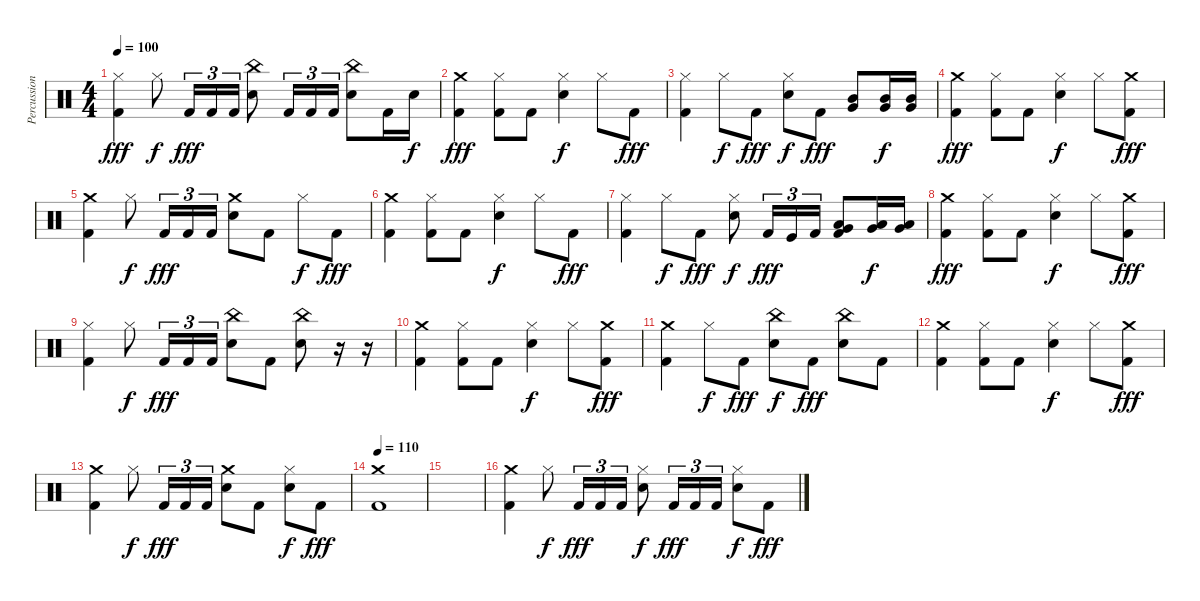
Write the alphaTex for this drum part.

\track ("Percussion" "Percussion") {instrument percussion}
\staff {score}
\articulation defaults
\ts (4 4)
\tempo 100
\clef neutral
\ks c
("Hi-Hat (closed)" "Kick (hit) 2").4{dy fff} "Hi-Hat (closed)".8{dy f} "Kick (hit) 2".16{tu (3 2) dy fff} "Kick (hit) 2".16{tu (3 2)} "Kick (hit) 2".16{tu (3 2)} ("China (hit)" "Snare (hit) 2").8 "Kick (hit) 2".16{tu (3 2)} "Kick (hit) 2".16{tu (3 2)} "Kick (hit) 2".16{tu (3 2)} ("China (hit)" "Snare (hit) 2").8 "Kick (hit) 2".16 "Snare (hit) 2".16{dy f} |
("Crash medium (hit)" "Kick (hit) 2").4{dy fff} ("Hi-Hat (closed)" "Kick (hit) 2").8 "Kick (hit) 2".8 ("Hi-Hat (closed)" "Snare (hit) 2").4{dy f} "Hi-Hat (closed)".8 "Kick (hit) 2".8{dy fff} |
("Hi-Hat (closed)" "Kick (hit) 2").4 "Hi-Hat (closed)".8{dy f} "Kick (hit) 2".8{dy fff} ("Hi-Hat (closed)" "Snare (hit) 2").8{dy f} "Kick (hit) 2".8{dy fff} ("Mid Tom (hit)" "Very Low Tom (hit)").8 ("Mid Tom (hit)" "Very Low Tom (hit)").16{dy f} ("Mid Tom (hit)" "Very Low Tom (hit)").16 |
("Crash medium (hit)" "Kick (hit) 2").4{dy fff} ("Hi-Hat (closed)" "Kick (hit) 2").8 "Kick (hit) 2".8 ("Hi-Hat (closed)" "Snare (hit) 2").4{dy f} "Hi-Hat (closed)".8 ("Crash medium (hit)" "Kick (hit) 2").8{dy fff} |
("Crash medium (hit)" "Kick (hit) 2").4 "Hi-Hat (closed)".8{dy f} "Kick (hit) 2".16{tu (3 2) dy fff} "Kick (hit) 2".16{tu (3 2)} "Kick (hit) 2".16{tu (3 2)} ("Crash medium (hit)" "Snare (hit) 2").8 "Kick (hit) 2".8 "Hi-Hat (closed)".8{dy f} "Kick (hit) 2".8{dy fff} |
("Crash medium (hit)" "Kick (hit) 2").4 ("Hi-Hat (closed)" "Kick (hit) 2").8 "Kick (hit) 2".8 ("Hi-Hat (closed)" "Snare (hit) 2").4{dy f} "Hi-Hat (closed)".8 "Kick (hit) 2".8{dy fff} |
("Hi-Hat (closed)" "Kick (hit) 2").4 "Hi-Hat (closed)".8{dy f} "Kick (hit) 2".8{dy fff} ("Hi-Hat (closed)" "Snare (hit) 2").8{dy f} "Kick (hit) 2".16{tu (3 2) dy fff} "Kick (hit)".16{tu (3 2)} "Kick (hit) 2".16{tu (3 2)} ("Very Low Tom (hit)" "Low Tom (hit)" "Kick (hit) 2").8 ("Low Tom (hit)" "Very Low Tom (hit)").16{dy f} ("Low Tom (hit)" "Very Low Tom (hit)").16 |
("Crash medium (hit)" "Kick (hit) 2").4{dy fff} ("Hi-Hat (closed)" "Kick (hit) 2").8 "Kick (hit) 2".8 ("Hi-Hat (closed)" "Snare (hit) 2").4{dy f} "Hi-Hat (closed)".8 ("Crash medium (hit)" "Kick (hit) 2").8{dy fff} |
("Hi-Hat (closed)" "Kick (hit) 2").4 "Hi-Hat (closed)".8{dy f} "Kick (hit) 2".16{tu (3 2) dy fff} "Kick (hit) 2".16{tu (3 2)} "Kick (hit) 2".16{tu (3 2)} ("China (hit)" "Snare (hit) 2").8 "Kick (hit) 2".8 ("China (hit)" "Snare (hit) 2").8 r.16 r.16 |
("Crash medium (hit)" "Kick (hit) 2").4 ("Hi-Hat (closed)" "Kick (hit) 2").8 "Kick (hit) 2".8 ("Hi-Hat (closed)" "Snare (hit) 2").4{dy f} "Hi-Hat (closed)".8 ("Crash medium (hit)" "Kick (hit) 2").8{dy fff} |
("Crash medium (hit)" "Kick (hit) 2").4 "Hi-Hat (closed)".8{dy f} "Kick (hit) 2".8{dy fff} ("China (hit)" "Snare (hit) 2").8{dy f} "Kick (hit) 2".8{dy fff} ("China (hit)" "Snare (hit) 2").8 "Kick (hit) 2".8 |
("Crash medium (hit)" "Kick (hit) 2").4 ("Hi-Hat (closed)" "Kick (hit) 2").8 "Kick (hit) 2".8 ("Hi-Hat (closed)" "Snare (hit) 2").4{dy f} "Hi-Hat (closed)".8 ("Crash medium (hit)" "Kick (hit) 2").8{dy fff} |
("Crash medium (hit)" "Kick (hit) 2").4 "Hi-Hat (closed)".8{dy f} "Kick (hit) 2".16{tu (3 2) dy fff} "Kick (hit) 2".16{tu (3 2)} "Kick (hit) 2".16{tu (3 2)} ("Crash medium (hit)" "Snare (hit) 2").8 "Kick (hit) 2".8 ("Hi-Hat (closed)" "Snare (hit) 2").8{dy f} "Kick (hit) 2".8{dy fff} |
\tempo 110
("Crash medium (hit)" "Kick (hit) 2").1 |
|
("Crash medium (hit)" "Kick (hit) 2").4 "Hi-Hat (closed)".8{dy f} "Kick (hit) 2".16{tu (3 2) dy fff} "Kick (hit) 2".16{tu (3 2)} "Kick (hit) 2".16{tu (3 2)} ("Hi-Hat (closed)" "Snare (hit) 2").8{dy f} "Kick (hit) 2".16{tu (3 2) dy fff} "Kick (hit) 2".16{tu (3 2)} "Kick (hit) 2".16{tu (3 2)} ("Hi-Hat (closed)" "Snare (hit) 2").8{dy f} "Kick (hit) 2".8{dy fff}
